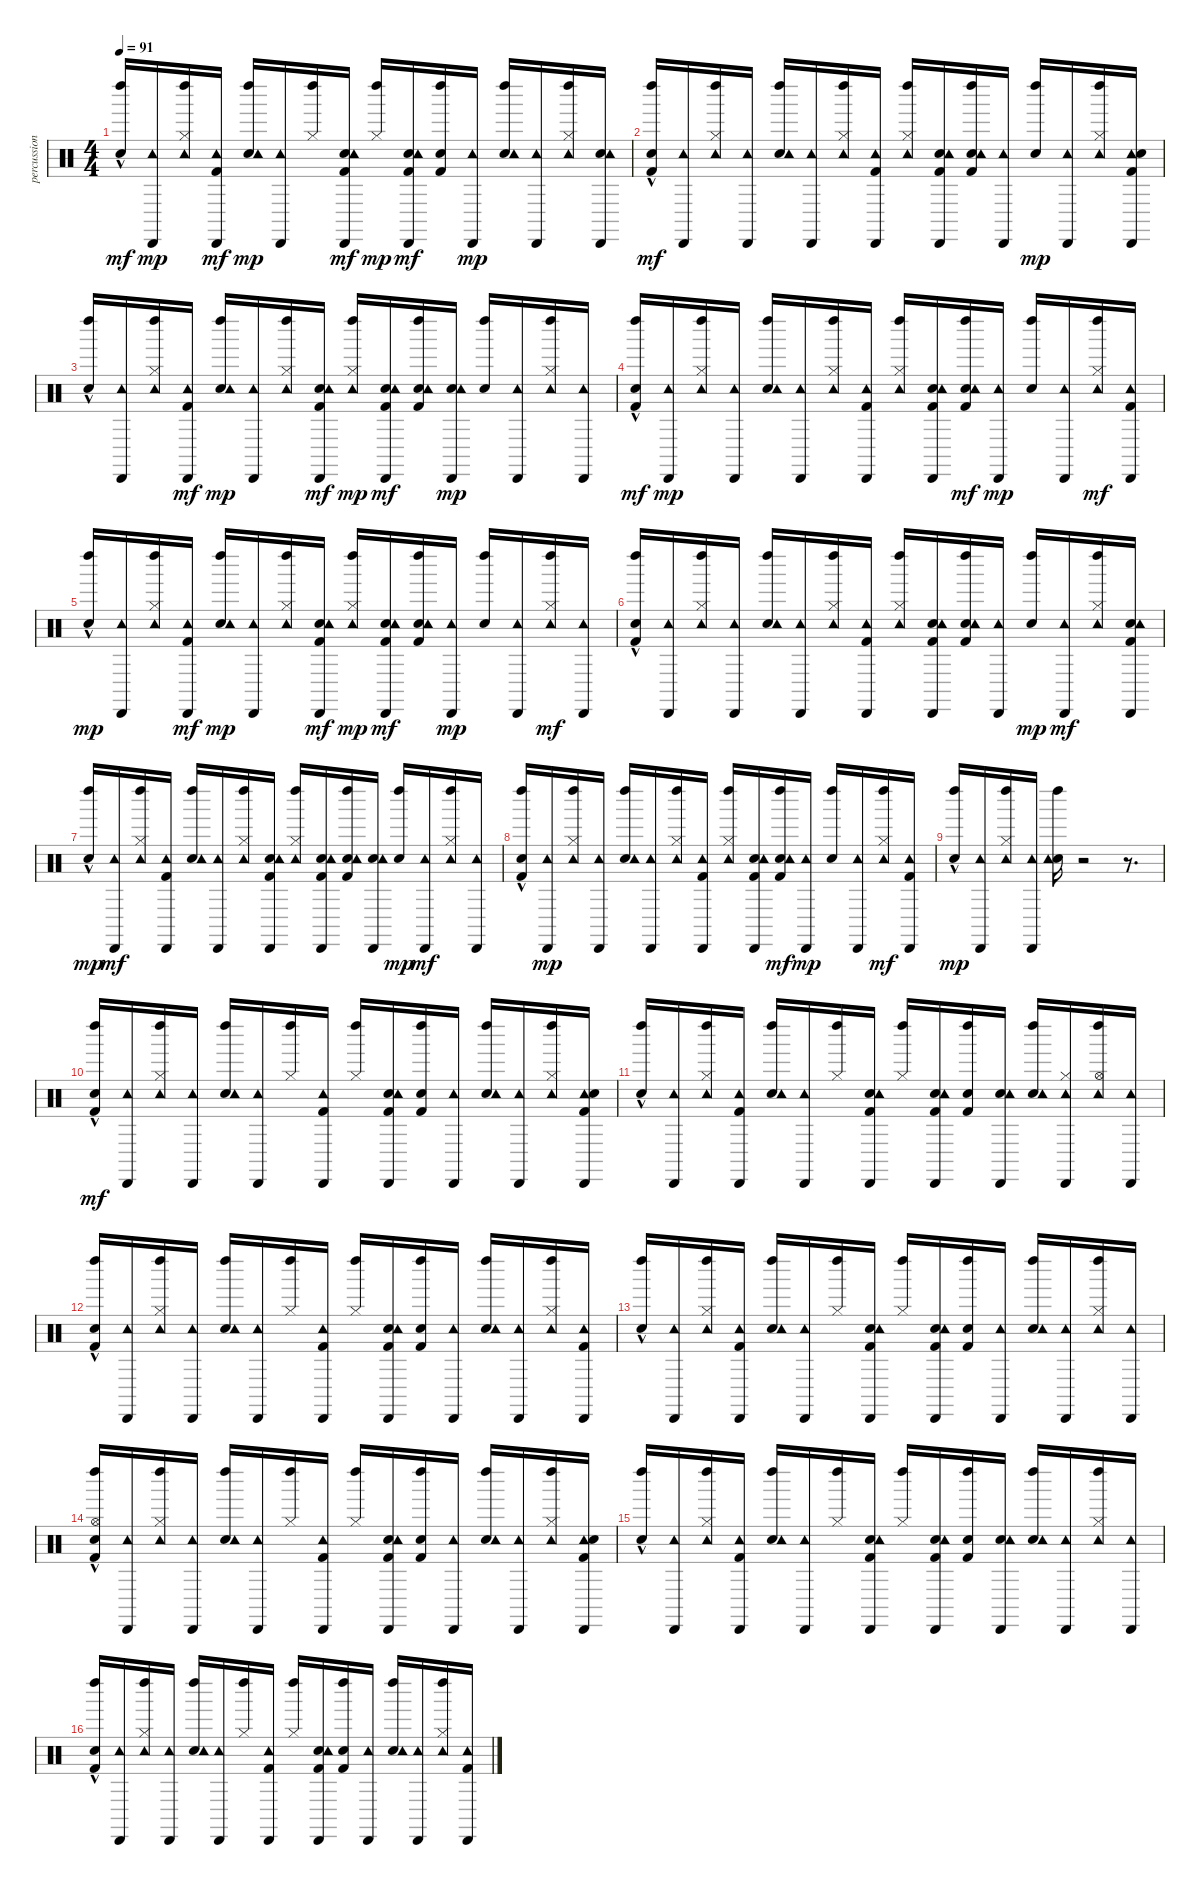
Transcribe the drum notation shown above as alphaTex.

\track ("percussion" "percussion") {instrument percussion}
\staff {score}
\articulation defaults
\ts (4 4)
\tempo 91
\clef neutral
\ks c
("Left Maraca (hit)" "Electric Snare (hit)"{hac}).16{dy mf} ("Tambourine (hit)" "Cabasa (hit)").16{dy mp} ("Hi-Hat (closed)" "Tambourine (hit)" "Left Maraca (hit)").16 ("Tambourine (hit)" "Cabasa (hit)" "Kick (hit) 2").16{dy mf} ("Electric Snare (hit)" "Tambourine (hit)" "Left Maraca (hit)").16{dy mp} ("Tambourine (hit)" "Cabasa (hit)").16 ("Hi-Hat (closed)" "Left Maraca (hit)").16 ("Electric Snare (hit)" "Tambourine (hit)" "Cabasa (hit)" "Kick (hit) 2").16{dy mf} ("Hi-Hat (closed)" "Left Maraca (hit)").16{dy mp} ("Electric Snare (hit)" "Tambourine (hit)" "Cabasa (hit)" "Kick (hit) 2").16{dy mf} ("Electric Snare (hit)" "Left Maraca (hit)" "Kick (hit) 2").16 ("Tambourine (hit)" "Cabasa (hit)").16{dy mp} ("Electric Snare (hit)" "Tambourine (hit)" "Left Maraca (hit)").16 ("Tambourine (hit)" "Cabasa (hit)").16 ("Tambourine (hit)" "Hi-Hat (closed)" "Left Maraca (hit)").16 ("Electric Snare (hit)" "Tambourine (hit)" "Cabasa (hit)").16 |
("Left Maraca (hit)" "Electric Snare (hit)"{hac} "Kick (hit) 2").16{dy mf volume 13} ("Cabasa (hit)" "Tambourine (hit)").16 ("Hi-Hat (closed)" "Left Maraca (hit)" "Tambourine (hit)").16 ("Cabasa (hit)" "Tambourine (hit)").16 ("Electric Snare (hit)" "Left Maraca (hit)" "Tambourine (hit)").16 ("Cabasa (hit)" "Tambourine (hit)").16 ("Hi-Hat (closed)" "Left Maraca (hit)" "Tambourine (hit)").16 ("Kick (hit) 2" "Cabasa (hit)" "Tambourine (hit)").16 ("Hi-Hat (closed)" "Left Maraca (hit)" "Tambourine (hit)").16 ("Electric Snare (hit)" "Kick (hit) 2" "Cabasa (hit)" "Tambourine (hit)").16 ("Electric Snare (hit)" "Kick (hit) 2" "Left Maraca (hit)" "Tambourine (hit)").16 ("Cabasa (hit)" "Tambourine (hit)").16 ("Electric Snare (hit)" "Left Maraca (hit)").16{dy mp} ("Tambourine (hit)" "Cabasa (hit)").16 ("Tambourine (hit)" "Hi-Hat (closed)" "Left Maraca (hit)").16 ("Tambourine (hit)" "Electric Snare (hit)" "Kick (hit) 2" "Cabasa (hit)").16 |
("Electric Snare (hit)"{hac} "Left Maraca (hit)").16 ("Tambourine (hit)" "Cabasa (hit)").16 ("Hi-Hat (closed)" "Tambourine (hit)" "Left Maraca (hit)").16 ("Tambourine (hit)" "Cabasa (hit)" "Kick (hit) 2").16{dy mf} ("Electric Snare (hit)" "Tambourine (hit)" "Left Maraca (hit)").16{dy mp} ("Tambourine (hit)" "Cabasa (hit)").16 ("Hi-Hat (closed)" "Tambourine (hit)" "Left Maraca (hit)").16 ("Electric Snare (hit)" "Tambourine (hit)" "Cabasa (hit)" "Kick (hit) 2").16{dy mf} ("Hi-Hat (closed)" "Tambourine (hit)" "Left Maraca (hit)").16{dy mp} ("Electric Snare (hit)" "Tambourine (hit)" "Cabasa (hit)" "Kick (hit) 2").16{dy mf} ("Electric Snare (hit)" "Tambourine (hit)" "Left Maraca (hit)" "Kick (hit) 2").16 ("Electric Snare (hit)" "Tambourine (hit)" "Cabasa (hit)").16{dy mp} ("Electric Snare (hit)" "Left Maraca (hit)").16 ("Tambourine (hit)" "Cabasa (hit)").16 ("Tambourine (hit)" "Hi-Hat (closed)" "Left Maraca (hit)").16 ("Tambourine (hit)" "Cabasa (hit)").16 |
("Electric Snare (hit)"{hac} "Left Maraca (hit)" "Kick (hit) 2").16{dy mf} ("Tambourine (hit)" "Cabasa (hit)").16{dy mp} ("Hi-Hat (closed)" "Tambourine (hit)" "Left Maraca (hit)").16 ("Tambourine (hit)" "Cabasa (hit)").16 ("Electric Snare (hit)" "Tambourine (hit)" "Left Maraca (hit)").16 ("Tambourine (hit)" "Cabasa (hit)").16 ("Hi-Hat (closed)" "Tambourine (hit)" "Left Maraca (hit)").16 ("Kick (hit) 2" "Tambourine (hit)" "Cabasa (hit)").16 ("Hi-Hat (closed)" "Tambourine (hit)" "Left Maraca (hit)").16 ("Electric Snare (hit)" "Kick (hit) 2" "Tambourine (hit)" "Cabasa (hit)").16 ("Electric Snare (hit)" "Tambourine (hit)" "Left Maraca (hit)" "Kick (hit) 2").16{dy mf} ("Tambourine (hit)" "Cabasa (hit)").16{dy mp} ("Electric Snare (hit)" "Left Maraca (hit)").16 ("Tambourine (hit)" "Cabasa (hit)").16 ("Hi-Hat (closed)" "Left Maraca (hit)" "Tambourine (hit)").16{dy mf} ("Kick (hit) 2" "Cabasa (hit)" "Tambourine (hit)").16 |
("Electric Snare (hit)"{hac} "Left Maraca (hit)").16{dy mp} ("Tambourine (hit)" "Cabasa (hit)").16 ("Hi-Hat (closed)" "Tambourine (hit)" "Left Maraca (hit)").16 ("Tambourine (hit)" "Cabasa (hit)" "Kick (hit) 2").16{dy mf} ("Electric Snare (hit)" "Tambourine (hit)" "Left Maraca (hit)").16{dy mp} ("Tambourine (hit)" "Cabasa (hit)").16 ("Hi-Hat (closed)" "Tambourine (hit)" "Left Maraca (hit)").16 ("Electric Snare (hit)" "Tambourine (hit)" "Cabasa (hit)" "Kick (hit) 2").16{dy mf} ("Hi-Hat (closed)" "Tambourine (hit)" "Left Maraca (hit)").16{dy mp} ("Electric Snare (hit)" "Tambourine (hit)" "Cabasa (hit)" "Kick (hit) 2").16{dy mf} ("Electric Snare (hit)" "Tambourine (hit)" "Left Maraca (hit)" "Kick (hit) 2").16 ("Tambourine (hit)" "Cabasa (hit)").16{dy mp} ("Electric Snare (hit)" "Left Maraca (hit)").16 ("Tambourine (hit)" "Cabasa (hit)").16 ("Hi-Hat (closed)" "Left Maraca (hit)" "Tambourine (hit)").16{dy mf} ("Cabasa (hit)" "Tambourine (hit)").16 |
("Kick (hit) 2" "Left Maraca (hit)" "Electric Snare (hit)"{hac}).16 ("Cabasa (hit)" "Tambourine (hit)").16 ("Hi-Hat (closed)" "Left Maraca (hit)" "Tambourine (hit)").16 ("Cabasa (hit)" "Tambourine (hit)").16 ("Electric Snare (hit)" "Left Maraca (hit)" "Tambourine (hit)").16 ("Cabasa (hit)" "Tambourine (hit)").16 ("Hi-Hat (closed)" "Left Maraca (hit)" "Tambourine (hit)").16 ("Kick (hit) 2" "Cabasa (hit)" "Tambourine (hit)").16 ("Hi-Hat (closed)" "Left Maraca (hit)" "Tambourine (hit)").16 ("Kick (hit) 2" "Electric Snare (hit)" "Cabasa (hit)" "Tambourine (hit)").16 ("Kick (hit) 2" "Electric Snare (hit)" "Left Maraca (hit)" "Tambourine (hit)").16 ("Cabasa (hit)" "Tambourine (hit)").16 ("Electric Snare (hit)" "Left Maraca (hit)").16{dy mp} ("Cabasa (hit)" "Tambourine (hit)").16{dy mf} ("Hi-Hat (closed)" "Left Maraca (hit)" "Tambourine (hit)").16 ("Kick (hit) 2" "Electric Snare (hit)" "Cabasa (hit)" "Tambourine (hit)").16 |
("Electric Snare (hit)"{hac} "Left Maraca (hit)").16{dy mp} ("Cabasa (hit)" "Tambourine (hit)").16{dy mf} ("Hi-Hat (closed)" "Left Maraca (hit)" "Tambourine (hit)").16 ("Cabasa (hit)" "Tambourine (hit)" "Kick (hit) 2").16 ("Electric Snare (hit)" "Left Maraca (hit)" "Tambourine (hit)").16 ("Cabasa (hit)" "Tambourine (hit)").16 ("Hi-Hat (closed)" "Left Maraca (hit)" "Tambourine (hit)").16 ("Electric Snare (hit)" "Cabasa (hit)" "Tambourine (hit)" "Kick (hit) 2").16 ("Hi-Hat (closed)" "Left Maraca (hit)" "Tambourine (hit)").16 ("Electric Snare (hit)" "Cabasa (hit)" "Tambourine (hit)" "Kick (hit) 2").16 ("Electric Snare (hit)" "Left Maraca (hit)" "Tambourine (hit)" "Kick (hit) 2").16 ("Electric Snare (hit)" "Cabasa (hit)" "Tambourine (hit)").16 ("Electric Snare (hit)" "Left Maraca (hit)").16{dy mp} ("Cabasa (hit)" "Tambourine (hit)").16{dy mf} ("Hi-Hat (closed)" "Left Maraca (hit)" "Tambourine (hit)").16 ("Cabasa (hit)" "Tambourine (hit)").16 |
("Electric Snare (hit)"{hac} "Left Maraca (hit)" "Kick (hit) 2").16 ("Tambourine (hit)" "Cabasa (hit)").16{dy mp} ("Hi-Hat (closed)" "Tambourine (hit)" "Left Maraca (hit)").16 ("Tambourine (hit)" "Cabasa (hit)").16 ("Electric Snare (hit)" "Tambourine (hit)" "Left Maraca (hit)").16 ("Tambourine (hit)" "Cabasa (hit)").16 ("Hi-Hat (closed)" "Tambourine (hit)" "Left Maraca (hit)").16 ("Kick (hit) 2" "Tambourine (hit)" "Cabasa (hit)").16 ("Hi-Hat (closed)" "Tambourine (hit)" "Left Maraca (hit)").16 ("Electric Snare (hit)" "Kick (hit) 2" "Tambourine (hit)" "Cabasa (hit)").16 ("Electric Snare (hit)" "Tambourine (hit)" "Left Maraca (hit)" "Kick (hit) 2").16{dy mf} ("Tambourine (hit)" "Cabasa (hit)").16{dy mp} ("Electric Snare (hit)" "Left Maraca (hit)").16 ("Tambourine (hit)" "Cabasa (hit)").16 ("Hi-Hat (closed)" "Left Maraca (hit)" "Tambourine (hit)").16{dy mf} ("Kick (hit) 2" "Cabasa (hit)" "Tambourine (hit)").16 |
("Electric Snare (hit)"{hac} "Left Maraca (hit)").16{dy mp} ("Tambourine (hit)" "Cabasa (hit)").16 ("Hi-Hat (closed)" "Tambourine (hit)" "Left Maraca (hit)").16 ("Tambourine (hit)" "Cabasa (hit)").16 ("Electric Snare (hit)" "Tambourine (hit)" "Left Maraca (hit)").16 r.2 r.8{d} |
("Left Maraca (hit)" "Electric Snare (hit)"{hac} "Kick (hit) 2").16{dy mf volume 14} ("Cabasa (hit)" "Tambourine (hit)").16 ("Hi-Hat (closed)" "Left Maraca (hit)" "Tambourine (hit)").16 ("Cabasa (hit)" "Tambourine (hit)").16 ("Electric Snare (hit)" "Left Maraca (hit)" "Tambourine (hit)").16 ("Cabasa (hit)" "Tambourine (hit)").16 ("Hi-Hat (closed)" "Left Maraca (hit)").16 ("Kick (hit) 2" "Cabasa (hit)" "Tambourine (hit)").16 ("Hi-Hat (closed)" "Left Maraca (hit)").16 ("Electric Snare (hit)" "Kick (hit) 2" "Cabasa (hit)" "Tambourine (hit)").16 ("Electric Snare (hit)" "Kick (hit) 2" "Left Maraca (hit)").16 ("Cabasa (hit)" "Tambourine (hit)").16 ("Electric Snare (hit)" "Left Maraca (hit)" "Tambourine (hit)").16 ("Cabasa (hit)" "Tambourine (hit)").16 ("Tambourine (hit)" "Hi-Hat (closed)" "Left Maraca (hit)").16 ("Tambourine (hit)" "Electric Snare (hit)" "Kick (hit) 2" "Cabasa (hit)").16 |
("Electric Snare (hit)"{hac} "Left Maraca (hit)").16 ("Tambourine (hit)" "Cabasa (hit)").16 ("Hi-Hat (closed)" "Tambourine (hit)" "Left Maraca (hit)").16 ("Tambourine (hit)" "Kick (hit) 2" "Cabasa (hit)").16 ("Electric Snare (hit)" "Tambourine (hit)" "Left Maraca (hit)").16 ("Tambourine (hit)" "Cabasa (hit)").16 ("Hi-Hat (closed)" "Left Maraca (hit)").16 ("Electric Snare (hit)" "Tambourine (hit)" "Kick (hit) 2" "Cabasa (hit)").16 ("Hi-Hat (closed)" "Left Maraca (hit)").16 ("Electric Snare (hit)" "Tambourine (hit)" "Kick (hit) 2" "Cabasa (hit)").16 ("Electric Snare (hit)" "Kick (hit) 2" "Left Maraca (hit)").16 ("Electric Snare (hit)" "Tambourine (hit)" "Cabasa (hit)").16 ("Electric Snare (hit)" "Tambourine (hit)" "Left Maraca (hit)").16 ("Hi-Hat (closed)" "Tambourine (hit)" "Cabasa (hit)").16 ("Tambourine (hit)" "Hi-Hat (open)" "Left Maraca (hit)").16 ("Tambourine (hit)" "Cabasa (hit)").16 |
("Electric Snare (hit)"{hac} "Left Maraca (hit)" "Kick (hit) 2").16 ("Tambourine (hit)" "Cabasa (hit)").16 ("Hi-Hat (closed)" "Tambourine (hit)" "Left Maraca (hit)").16 ("Tambourine (hit)" "Cabasa (hit)").16 ("Electric Snare (hit)" "Tambourine (hit)" "Left Maraca (hit)").16 ("Tambourine (hit)" "Cabasa (hit)").16 ("Hi-Hat (closed)" "Left Maraca (hit)").16 ("Kick (hit) 2" "Tambourine (hit)" "Cabasa (hit)").16 ("Hi-Hat (closed)" "Left Maraca (hit)").16 ("Electric Snare (hit)" "Kick (hit) 2" "Tambourine (hit)" "Cabasa (hit)").16 ("Electric Snare (hit)" "Left Maraca (hit)" "Kick (hit) 2").16 ("Tambourine (hit)" "Cabasa (hit)").16 ("Electric Snare (hit)" "Tambourine (hit)" "Left Maraca (hit)").16 ("Tambourine (hit)" "Cabasa (hit)").16 ("Tambourine (hit)" "Hi-Hat (closed)" "Left Maraca (hit)").16 ("Tambourine (hit)" "Kick (hit) 2" "Cabasa (hit)").16 |
("Electric Snare (hit)"{hac} "Left Maraca (hit)").16 ("Tambourine (hit)" "Cabasa (hit)").16 ("Hi-Hat (closed)" "Tambourine (hit)" "Left Maraca (hit)").16 ("Tambourine (hit)" "Kick (hit) 2" "Cabasa (hit)").16 ("Electric Snare (hit)" "Tambourine (hit)" "Left Maraca (hit)").16 ("Tambourine (hit)" "Cabasa (hit)").16 ("Hi-Hat (closed)" "Left Maraca (hit)").16 ("Electric Snare (hit)" "Tambourine (hit)" "Kick (hit) 2" "Cabasa (hit)").16 ("Hi-Hat (closed)" "Left Maraca (hit)").16 ("Electric Snare (hit)" "Tambourine (hit)" "Kick (hit) 2" "Cabasa (hit)").16 ("Electric Snare (hit)" "Kick (hit) 2" "Left Maraca (hit)").16 ("Tambourine (hit)" "Cabasa (hit)").16 ("Electric Snare (hit)" "Tambourine (hit)" "Left Maraca (hit)").16 ("Tambourine (hit)" "Cabasa (hit)").16 ("Tambourine (hit)" "Hi-Hat (closed)" "Left Maraca (hit)").16 ("Tambourine (hit)" "Cabasa (hit)").16 |
("Kick (hit) 2" "Hi-Hat (open)" "Electric Snare (hit)"{hac} "Left Maraca (hit)").16 ("Tambourine (hit)" "Cabasa (hit)").16 ("Hi-Hat (closed)" "Tambourine (hit)" "Left Maraca (hit)").16 ("Tambourine (hit)" "Cabasa (hit)").16 ("Electric Snare (hit)" "Tambourine (hit)" "Left Maraca (hit)").16 ("Tambourine (hit)" "Cabasa (hit)").16 ("Hi-Hat (closed)" "Left Maraca (hit)").16 ("Kick (hit) 2" "Tambourine (hit)" "Cabasa (hit)").16 ("Hi-Hat (closed)" "Left Maraca (hit)").16 ("Kick (hit) 2" "Electric Snare (hit)" "Tambourine (hit)" "Cabasa (hit)").16 ("Kick (hit) 2" "Electric Snare (hit)" "Left Maraca (hit)").16 ("Tambourine (hit)" "Cabasa (hit)").16 ("Electric Snare (hit)" "Tambourine (hit)" "Left Maraca (hit)").16 ("Tambourine (hit)" "Cabasa (hit)").16 ("Tambourine (hit)" "Hi-Hat (closed)" "Left Maraca (hit)").16 ("Kick (hit) 2" "Tambourine (hit)" "Electric Snare (hit)" "Cabasa (hit)").16 |
("Electric Snare (hit)"{hac} "Left Maraca (hit)").16 ("Tambourine (hit)" "Cabasa (hit)").16 ("Hi-Hat (closed)" "Tambourine (hit)" "Left Maraca (hit)").16 ("Tambourine (hit)" "Kick (hit) 2" "Cabasa (hit)").16 ("Electric Snare (hit)" "Tambourine (hit)" "Left Maraca (hit)").16 ("Tambourine (hit)" "Cabasa (hit)").16 ("Hi-Hat (closed)" "Left Maraca (hit)").16 ("Electric Snare (hit)" "Tambourine (hit)" "Kick (hit) 2" "Cabasa (hit)").16 ("Hi-Hat (closed)" "Left Maraca (hit)").16 ("Electric Snare (hit)" "Tambourine (hit)" "Kick (hit) 2" "Cabasa (hit)").16 ("Electric Snare (hit)" "Kick (hit) 2" "Left Maraca (hit)").16 ("Electric Snare (hit)" "Tambourine (hit)" "Cabasa (hit)").16 ("Electric Snare (hit)" "Tambourine (hit)" "Left Maraca (hit)").16 ("Tambourine (hit)" "Cabasa (hit)").16 ("Tambourine (hit)" "Hi-Hat (closed)" "Left Maraca (hit)").16 ("Tambourine (hit)" "Cabasa (hit)").16 |
("Left Maraca (hit)" "Electric Snare (hit)"{hac} "Kick (hit) 2").16 ("Tambourine (hit)" "Cabasa (hit)").16 ("Hi-Hat (closed)" "Tambourine (hit)" "Left Maraca (hit)").16 ("Tambourine (hit)" "Cabasa (hit)").16 ("Electric Snare (hit)" "Tambourine (hit)" "Left Maraca (hit)").16 ("Tambourine (hit)" "Cabasa (hit)").16 ("Hi-Hat (closed)" "Left Maraca (hit)").16 ("Kick (hit) 2" "Tambourine (hit)" "Cabasa (hit)").16 ("Hi-Hat (closed)" "Left Maraca (hit)").16 ("Electric Snare (hit)" "Kick (hit) 2" "Tambourine (hit)" "Cabasa (hit)").16 ("Electric Snare (hit)" "Left Maraca (hit)" "Kick (hit) 2").16 ("Tambourine (hit)" "Cabasa (hit)").16 ("Electric Snare (hit)" "Tambourine (hit)" "Left Maraca (hit)").16 ("Tambourine (hit)" "Cabasa (hit)").16 ("Tambourine (hit)" "Hi-Hat (closed)" "Left Maraca (hit)").16 ("Tambourine (hit)" "Kick (hit) 2" "Cabasa (hit)").16
